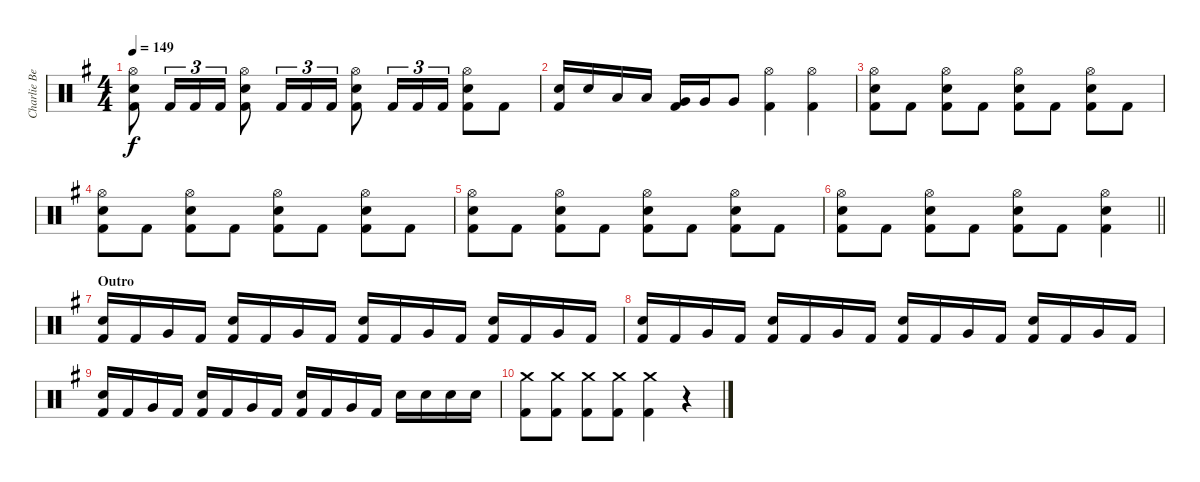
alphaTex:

\track ("Charlie Benate" "Charlie Be") {instrument percussion}
\staff {score}
\articulation defaults
\ts (4 4)
\tempo 149
\clef neutral
\ks g
("Hi-Hat (open)" "Snare (hit) 2" "Kick (hit) 2").8{dy f} "Kick (hit) 2".16{tu (3 2)} "Kick (hit) 2".16{tu (3 2)} "Kick (hit) 2".16{tu (3 2)} ("Hi-Hat (open)" "Snare (hit) 2" "Kick (hit) 2").8 "Kick (hit) 2".16{tu (3 2)} "Kick (hit) 2".16{tu (3 2)} "Kick (hit) 2".16{tu (3 2)} ("Hi-Hat (open)" "Snare (hit) 2" "Kick (hit) 2").8 "Kick (hit) 2".16{tu (3 2)} "Kick (hit) 2".16{tu (3 2)} "Kick (hit) 2".16{tu (3 2)} ("Hi-Hat (open)" "Snare (hit) 2" "Kick (hit) 2").8 "Kick (hit) 2".8 |
("Snare (hit) 2" "Kick (hit) 2").16 "Snare (hit) 2".16 "Low Tom (hit)".16 "Low Tom (hit)".16 ("Very Low Tom (hit)" "Kick (hit) 2").16 "Very Low Tom (hit)".16 "Very Low Tom (hit)".8 ("Hi-Hat (open)" "Kick (hit) 2").4 ("Hi-Hat (open)" "Kick (hit) 2").4 |
("Hi-Hat (open)" "Snare (hit) 2" "Kick (hit) 2").8 "Kick (hit) 2".8 ("Hi-Hat (open)" "Snare (hit) 2" "Kick (hit) 2").8 "Kick (hit) 2".8 ("Hi-Hat (open)" "Snare (hit) 2" "Kick (hit) 2").8 "Kick (hit) 2".8 ("Hi-Hat (open)" "Snare (hit) 2" "Kick (hit) 2").8 "Kick (hit) 2".8 |
("Hi-Hat (open)" "Snare (hit) 2" "Kick (hit) 2").8 "Kick (hit) 2".8 ("Hi-Hat (open)" "Snare (hit) 2" "Kick (hit) 2").8 "Kick (hit) 2".8 ("Hi-Hat (open)" "Snare (hit) 2" "Kick (hit) 2").8 "Kick (hit) 2".8 ("Hi-Hat (open)" "Snare (hit) 2" "Kick (hit) 2").8 "Kick (hit) 2".8 |
("Hi-Hat (open)" "Snare (hit) 2" "Kick (hit) 2").8 "Kick (hit) 2".8 ("Hi-Hat (open)" "Snare (hit) 2" "Kick (hit) 2").8 "Kick (hit) 2".8 ("Hi-Hat (open)" "Snare (hit) 2" "Kick (hit) 2").8 "Kick (hit) 2".8 ("Hi-Hat (open)" "Snare (hit) 2" "Kick (hit) 2").8 "Kick (hit) 2".8 |
\barLineRight lightlight
("Hi-Hat (open)" "Snare (hit) 2" "Kick (hit) 2").8 "Kick (hit) 2".8 ("Hi-Hat (open)" "Snare (hit) 2" "Kick (hit) 2").8 "Kick (hit) 2".8 ("Hi-Hat (open)" "Snare (hit) 2" "Kick (hit) 2").8 "Kick (hit) 2".8 ("Hi-Hat (open)" "Snare (hit) 2" "Kick (hit) 2").4 |
\section ("" "Outro")
("Snare (hit) 2" "Kick (hit) 2").16 "Kick (hit) 2".16 "Very Low Tom (hit)".16 "Kick (hit) 2".16 ("Snare (hit) 2" "Kick (hit) 2").16 "Kick (hit) 2".16 "Very Low Tom (hit)".16 "Kick (hit) 2".16 ("Snare (hit) 2" "Kick (hit) 2").16 "Kick (hit) 2".16 "Very Low Tom (hit)".16 "Kick (hit) 2".16 ("Snare (hit) 2" "Kick (hit) 2").16 "Kick (hit) 2".16 "Very Low Tom (hit)".16 "Kick (hit) 2".16 |
("Snare (hit) 2" "Kick (hit) 2").16 "Kick (hit) 2".16 "Very Low Tom (hit)".16 "Kick (hit) 2".16 ("Snare (hit) 2" "Kick (hit) 2").16 "Kick (hit) 2".16 "Very Low Tom (hit)".16 "Kick (hit) 2".16 ("Snare (hit) 2" "Kick (hit) 2").16 "Kick (hit) 2".16 "Very Low Tom (hit)".16 "Kick (hit) 2".16 ("Snare (hit) 2" "Kick (hit) 2").16 "Kick (hit) 2".16 "Very Low Tom (hit)".16 "Kick (hit) 2".16 |
("Snare (hit) 2" "Kick (hit) 2").16 "Kick (hit) 2".16 "Very Low Tom (hit)".16 "Kick (hit) 2".16 ("Snare (hit) 2" "Kick (hit) 2").16 "Kick (hit) 2".16 "Very Low Tom (hit)".16 "Kick (hit) 2".16 ("Snare (hit) 2" "Kick (hit) 2").16 "Kick (hit) 2".16 "Very Low Tom (hit)".16 "Kick (hit) 2".16 "Snare (hit) 2".16 "Snare (hit) 2".16 "Snare (hit) 2".16 "Snare (hit) 2".16 |
("Crash medium (hit)" "Kick (hit) 2").8 ("Crash medium (hit)" "Kick (hit) 2").8 ("Crash medium (hit)" "Kick (hit) 2").8 ("Crash medium (hit)" "Kick (hit) 2").8 ("Crash medium (hit)" "Kick (hit) 2").4 r.4
